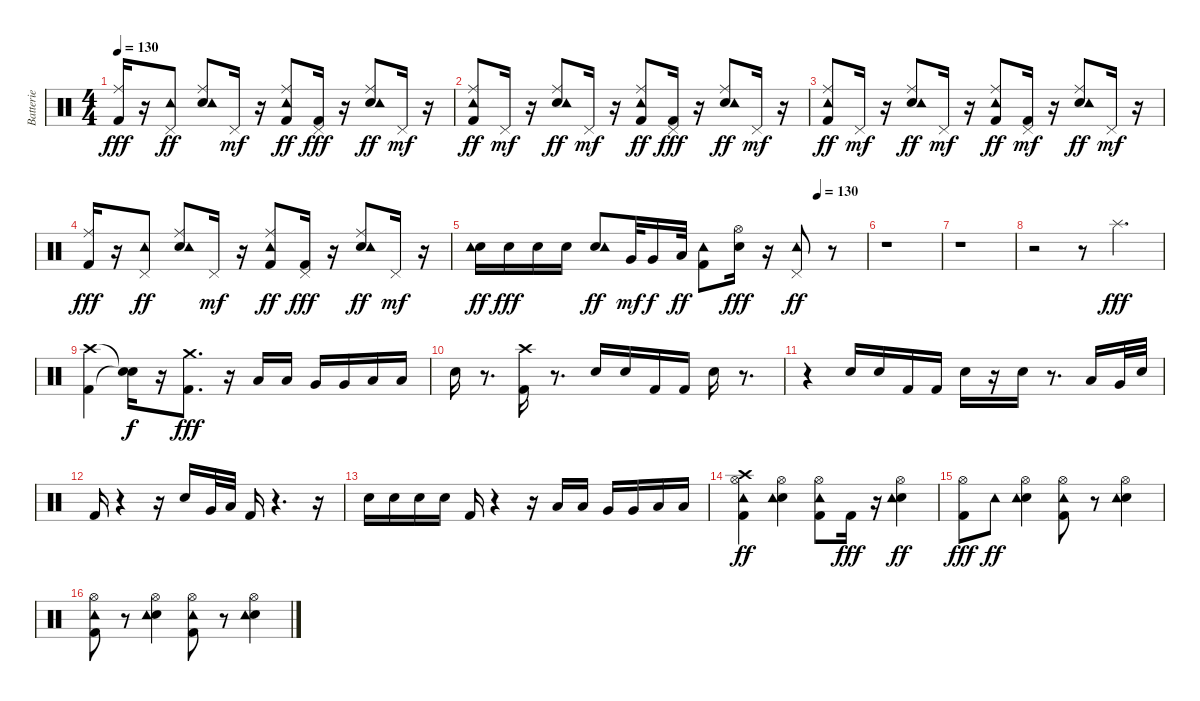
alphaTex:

\track ("Batterie" "Batterie") {instrument percussion}
\staff {score}
\articulation defaults
\ts (4 4)
\tempo 130
\clef neutral
\ks c
("Ride (middle)" "Kick (hit) 2").16{dy fff} r.16 ("Pedal Hi-Hat (hit)" "Tambourine (hit)").8{dy ff} ("Ride (middle)" "Snare (hit) 2" "Tambourine (hit)").8 "Pedal Hi-Hat (hit)".16{dy mf} r.16 ("Ride (middle)" "Kick (hit) 2" "Tambourine (hit)").8{dy ff} ("Pedal Hi-Hat (hit)" "Kick (hit) 2").16{dy fff} r.16 ("Ride (middle)" "Snare (hit) 2" "Tambourine (hit)").8{dy ff} "Pedal Hi-Hat (hit)".16{dy mf} r.16 |
("Ride (middle)" "Kick (hit) 2" "Tambourine (hit)").8{dy ff} "Pedal Hi-Hat (hit)".16{dy mf} r.16 ("Ride (middle)" "Snare (hit) 2" "Tambourine (hit)").8{dy ff} "Pedal Hi-Hat (hit)".16{dy mf} r.16 ("Ride (middle)" "Kick (hit) 2" "Tambourine (hit)").8{dy ff} ("Pedal Hi-Hat (hit)" "Kick (hit) 2").16{dy fff} r.16 ("Ride (middle)" "Snare (hit) 2" "Tambourine (hit)").8{dy ff} "Pedal Hi-Hat (hit)".16{dy mf} r.16 |
("Ride (middle)" "Kick (hit) 2" "Tambourine (hit)").8{dy ff} "Pedal Hi-Hat (hit)".16{dy mf} r.16 ("Snare (hit) 2" "Ride (middle)" "Tambourine (hit)").8{dy ff} "Pedal Hi-Hat (hit)".16{dy mf} r.16 ("Ride (middle)" "Kick (hit) 2" "Tambourine (hit)").8{dy ff} ("Kick (hit) 2" "Pedal Hi-Hat (hit)").16{dy mf} r.16 ("Ride (middle)" "Snare (hit) 2" "Tambourine (hit)").8{dy ff} "Pedal Hi-Hat (hit)".16{dy mf} r.16 |
("Ride (middle)" "Kick (hit) 2").16{dy fff} r.16 ("Pedal Hi-Hat (hit)" "Tambourine (hit)").8{dy ff} ("Ride (middle)" "Snare (hit) 2" "Tambourine (hit)").8 "Pedal Hi-Hat (hit)".16{dy mf} r.16 ("Ride (middle)" "Kick (hit) 2" "Tambourine (hit)").8{dy ff} ("Pedal Hi-Hat (hit)" "Kick (hit) 2").16{dy fff} r.16 ("Snare (hit) 2" "Ride (middle)" "Tambourine (hit)").8{dy ff} "Pedal Hi-Hat (hit)".16{dy mf} r.16 |
\tempo (130 0.875)
("Snare (hit) 2" "Tambourine (hit)").16{dy ff} "Snare (hit) 2".16{dy fff} "Snare (hit) 2".16 "Snare (hit) 2".16 ("Snare (hit) 2" "Tambourine (hit)").8{dy ff} "Very Low Tom (hit)".32{dy mf} "Very Low Tom (hit)".16{dy f} "Low Floor Tom (hit)".32{dy ff} ("Kick (hit) 2" "Tambourine (hit)").8 ("Hi-Hat (open)" "Snare (hit) 2").16{dy fff} r.16 ("Pedal Hi-Hat (hit)" "Tambourine (hit)").8{dy ff} r.8 |
r.1 |
r.1 |
r.2 r.8 "Splash (hit)".4{d dy fff} |
("Crash high (hit)" "Kick (hit) 2").4 ("Snare (hit)"{t} "Snare (hit)"{t}).16{dy f} r.16 ("Crash medium (hit)" "Kick (hit) 2").8{d dy fff} r.16 "Low Tom (hit)".16 "Low Tom (hit)".16 "Very Low Tom (hit)".16 "Very Low Tom (hit)".16 "Low Floor Tom (hit)".16 "Low Floor Tom (hit)".16 |
"Snare (hit) 2".16 r.8{d} ("Crash high (hit)" "Kick (hit) 2").16 r.8{d} "Snare (hit) 2".16 "Snare (hit) 2".16 "Kick (hit) 2".16 "Kick (hit) 2".16 "Snare (hit) 2".16 r.8{d} |
r.4 "Snare (hit) 2".16 "Snare (hit) 2".16 "Kick (hit) 2".16 "Kick (hit) 2".16 "Snare (hit) 2".16 r.16 "Snare (hit) 2".16 r.8{d} "Low Floor Tom (hit)".16 "Very Low Tom (hit)".32 "Snare (hit) 2".32 |
"Kick (hit) 2".16 r.4 r.16 "Snare (hit) 2".16 "Very Low Tom (hit)".32 "Low Floor Tom (hit)".32 "Kick (hit) 2".16 r.4{d} r.16 |
"Snare (hit) 2".16 "Snare (hit) 2".16 "Snare (hit) 2".16 "Snare (hit) 2".16 "Kick (hit) 2".16 r.4 r.16 "Low Tom (hit)".16 "Low Tom (hit)".16 "Very Low Tom (hit)".16 "Very Low Tom (hit)".16 "Low Floor Tom (hit)".16 "Low Floor Tom (hit)".16 |
("Kick (hit) 2" "Crash high (hit)" "Hi-Hat (open)" "Tambourine (hit)").4{dy ff} ("Snare (hit) 2" "Hi-Hat (open)" "Tambourine (hit)").4 ("Kick (hit) 2" "Hi-Hat (open)" "Tambourine (hit)").8 "Kick (hit) 2".16{dy fff} r.16 ("Snare (hit) 2" "Hi-Hat (open)" "Tambourine (hit)").4{dy ff} |
("Kick (hit) 2" "Hi-Hat (open)").8{dy fff} "Tambourine (hit)".8{dy ff} ("Snare (hit) 2" "Hi-Hat (open)" "Tambourine (hit)").4 ("Kick (hit) 2" "Hi-Hat (open)" "Tambourine (hit)").8 r.8 ("Snare (hit) 2" "Hi-Hat (open)" "Tambourine (hit)").4 |
("Hi-Hat (open)" "Kick (hit) 2" "Tambourine (hit)").8 r.8 ("Snare (hit) 2" "Hi-Hat (open)" "Tambourine (hit)").4 ("Kick (hit) 2" "Hi-Hat (open)" "Tambourine (hit)").8 r.8 ("Snare (hit) 2" "Hi-Hat (open)" "Tambourine (hit)").4
